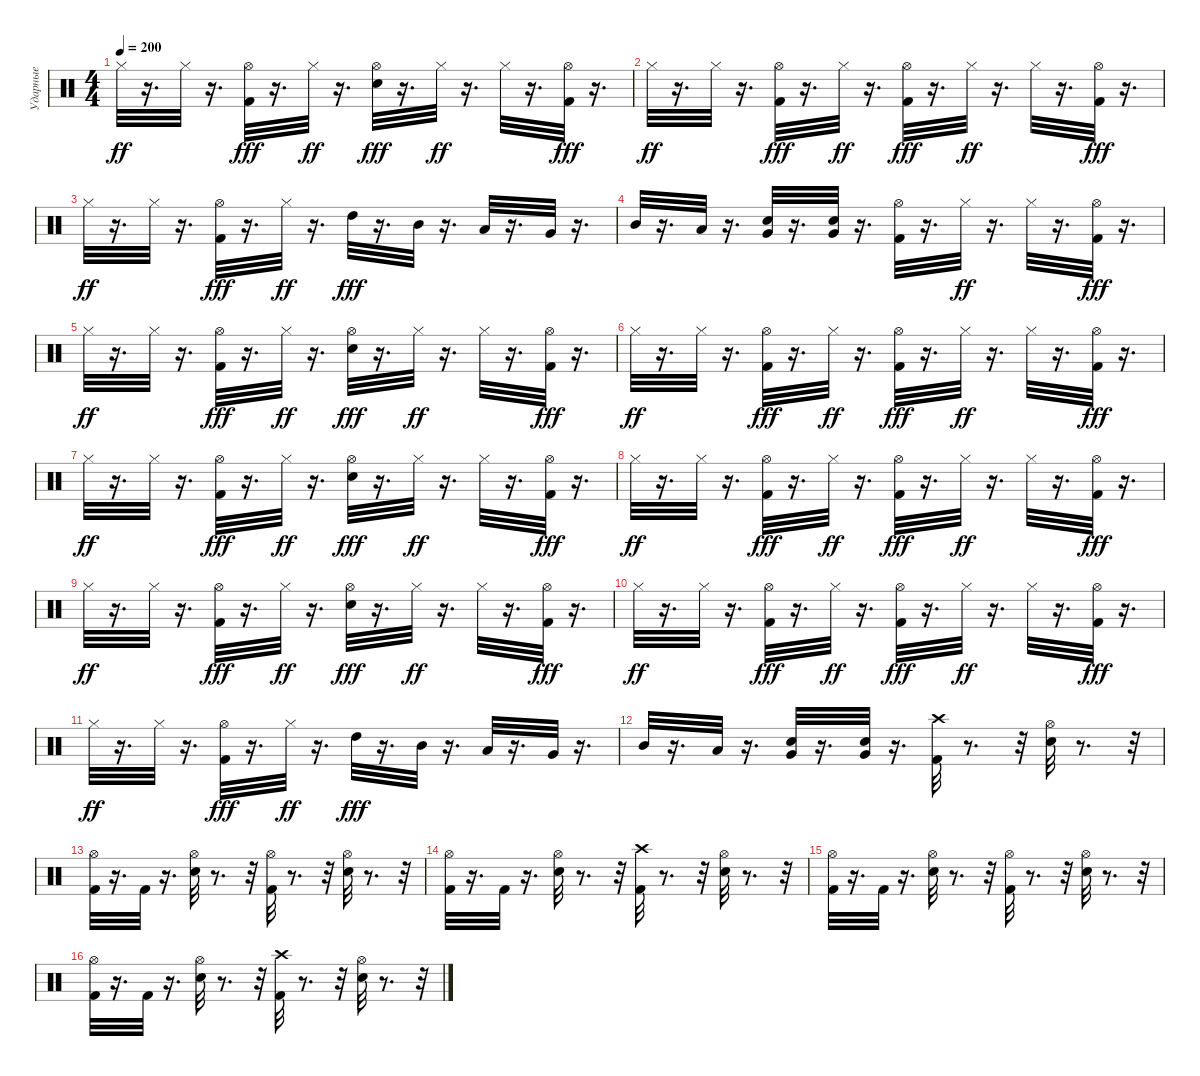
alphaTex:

\track ("Ударные" "Ударные") {instrument percussion}
\staff {score}
\articulation defaults
\ts (4 4)
\tempo 200
\clef neutral
\ks c "Hi-Hat (closed)".32{dy ff}
r.16{d} "Hi-Hat (closed)".32 r.16{d} ("Kick (hit) 2" "Hi-Hat (open)").32{dy fff} r.16{d} "Hi-Hat (closed)".32{dy ff} r.16{d} ("Hi-Hat (open)" "Snare (hit) 2").32{dy fff} r.16{d} "Hi-Hat (closed)".32{dy ff} r.16{d} "Hi-Hat (closed)".32 r.16{d} ("Kick (hit) 2" "Hi-Hat (open)").32{dy fff} r.16{d} |
"Hi-Hat (closed)".32{dy ff} r.16{d} "Hi-Hat (closed)".32 r.16{d} ("Hi-Hat (open)" "Kick (hit) 2").32{dy fff} r.16{d} "Hi-Hat (closed)".32{dy ff} r.16{d} ("Kick (hit) 2" "Hi-Hat (open)").32{dy fff} r.16{d} "Hi-Hat (closed)".32{dy ff} r.16{d} "Hi-Hat (closed)".32 r.16{d} ("Kick (hit) 2" "Hi-Hat (open)").32{dy fff} r.16{d} |
"Hi-Hat (closed)".32{dy ff} r.16{d} "Hi-Hat (closed)".32 r.16{d} ("Kick (hit) 2" "Hi-Hat (open)").32{dy fff} r.16{d} "Hi-Hat (closed)".32{dy ff} r.16{d} "High Tom (hit)".32{dy fff} r.16{d} "Mid Tom (hit)".32 r.16{d} "Low Tom (hit)".32 r.16{d} "Very Low Tom (hit)".32 r.16{d} |
"Mid Tom (hit)".32 r.16{d} "Low Tom (hit)".32 r.16{d} ("Snare (hit) 2" "Very Low Tom (hit)").32 r.16{d} ("Snare (hit) 2" "Very Low Tom (hit)").32 r.16{d} ("Kick (hit) 2" "Hi-Hat (open)").32 r.16{d} "Hi-Hat (closed)".32{dy ff} r.16{d} "Hi-Hat (closed)".32 r.16{d} ("Kick (hit) 2" "Hi-Hat (open)").32{dy fff} r.16{d} |
"Hi-Hat (closed)".32{dy ff} r.16{d} "Hi-Hat (closed)".32 r.16{d} ("Kick (hit) 2" "Hi-Hat (open)").32{dy fff} r.16{d} "Hi-Hat (closed)".32{dy ff} r.16{d} ("Hi-Hat (open)" "Snare (hit) 2").32{dy fff} r.16{d} "Hi-Hat (closed)".32{dy ff} r.16{d} "Hi-Hat (closed)".32 r.16{d} ("Kick (hit) 2" "Hi-Hat (open)").32{dy fff} r.16{d} |
"Hi-Hat (closed)".32{dy ff} r.16{d} "Hi-Hat (closed)".32 r.16{d} ("Hi-Hat (open)" "Kick (hit) 2").32{dy fff} r.16{d} "Hi-Hat (closed)".32{dy ff} r.16{d} ("Kick (hit) 2" "Hi-Hat (open)").32{dy fff} r.16{d} "Hi-Hat (closed)".32{dy ff} r.16{d} "Hi-Hat (closed)".32 r.16{d} ("Kick (hit) 2" "Hi-Hat (open)").32{dy fff} r.16{d} |
"Hi-Hat (closed)".32{dy ff} r.16{d} "Hi-Hat (closed)".32 r.16{d} ("Kick (hit) 2" "Hi-Hat (open)").32{dy fff} r.16{d} "Hi-Hat (closed)".32{dy ff} r.16{d} ("Hi-Hat (open)" "Snare (hit) 2").32{dy fff} r.16{d} "Hi-Hat (closed)".32{dy ff} r.16{d} "Hi-Hat (closed)".32 r.16{d} ("Kick (hit) 2" "Hi-Hat (open)").32{dy fff} r.16{d} |
"Hi-Hat (closed)".32{dy ff} r.16{d} "Hi-Hat (closed)".32 r.16{d} ("Hi-Hat (open)" "Kick (hit) 2").32{dy fff} r.16{d} "Hi-Hat (closed)".32{dy ff} r.16{d} ("Kick (hit) 2" "Hi-Hat (open)").32{dy fff} r.16{d} "Hi-Hat (closed)".32{dy ff} r.16{d} "Hi-Hat (closed)".32 r.16{d} ("Kick (hit) 2" "Hi-Hat (open)").32{dy fff} r.16{d} |
"Hi-Hat (closed)".32{dy ff} r.16{d} "Hi-Hat (closed)".32 r.16{d} ("Kick (hit) 2" "Hi-Hat (open)").32{dy fff} r.16{d} "Hi-Hat (closed)".32{dy ff} r.16{d} ("Hi-Hat (open)" "Snare (hit) 2").32{dy fff} r.16{d} "Hi-Hat (closed)".32{dy ff} r.16{d} "Hi-Hat (closed)".32 r.16{d} ("Kick (hit) 2" "Hi-Hat (open)").32{dy fff} r.16{d} |
"Hi-Hat (closed)".32{dy ff} r.16{d} "Hi-Hat (closed)".32 r.16{d} ("Hi-Hat (open)" "Kick (hit) 2").32{dy fff} r.16{d} "Hi-Hat (closed)".32{dy ff} r.16{d} ("Hi-Hat (open)" "Kick (hit) 2").32{dy fff} r.16{d} "Hi-Hat (closed)".32{dy ff} r.16{d} "Hi-Hat (closed)".32 r.16{d} ("Hi-Hat (open)" "Kick (hit) 2").32{dy fff} r.16{d} |
"Hi-Hat (closed)".32{dy ff} r.16{d} "Hi-Hat (closed)".32 r.16{d} ("Hi-Hat (open)" "Kick (hit) 2").32{dy fff} r.16{d} "Hi-Hat (closed)".32{dy ff} r.16{d} "High Tom (hit)".32{dy fff} r.16{d} "Mid Tom (hit)".32 r.16{d} "Low Tom (hit)".32 r.16{d} "Very Low Tom (hit)".32 r.16{d} |
"Mid Tom (hit)".32 r.16{d} "Low Tom (hit)".32 r.16{d} ("Snare (hit) 2" "Very Low Tom (hit)").32 r.16{d} ("Very Low Tom (hit)" "Snare (hit) 2").32 r.16{d} ("Crash high (hit)" "Kick (hit) 2").32 r.8{d} r.32 ("Hi-Hat (open)" "Snare (hit) 2").32 r.8{d} r.32 |
("Kick (hit) 2" "Hi-Hat (open)").32 r.16{d} "Kick (hit) 2".32 r.16{d} ("Hi-Hat (open)" "Snare (hit) 2").32 r.8{d} r.32 ("Kick (hit) 2" "Hi-Hat (open)").32 r.8{d} r.32 ("Hi-Hat (open)" "Snare (hit) 2").32 r.8{d} r.32 |
("Kick (hit) 2" "Hi-Hat (open)").32 r.16{d} "Kick (hit) 2".32 r.16{d} ("Snare (hit) 2" "Hi-Hat (open)").32 r.8{d} r.32 ("Crash high (hit)" "Kick (hit) 2").32 r.8{d} r.32 ("Hi-Hat (open)" "Snare (hit) 2").32 r.8{d} r.32 |
("Kick (hit) 2" "Hi-Hat (open)").32 r.16{d} "Kick (hit) 2".32 r.16{d} ("Hi-Hat (open)" "Snare (hit) 2").32 r.8{d} r.32 ("Hi-Hat (open)" "Kick (hit) 2").32 r.8{d} r.32 ("Snare (hit) 2" "Hi-Hat (open)").32 r.8{d} r.32 |
("Hi-Hat (open)" "Kick (hit) 2").32 r.16{d} "Kick (hit) 2".32 r.16{d} ("Hi-Hat (open)" "Snare (hit) 2").32 r.8{d} r.32 ("Crash high (hit)" "Kick (hit) 2").32 r.8{d} r.32 ("Snare (hit) 2" "Hi-Hat (open)").32 r.8{d} r.32
